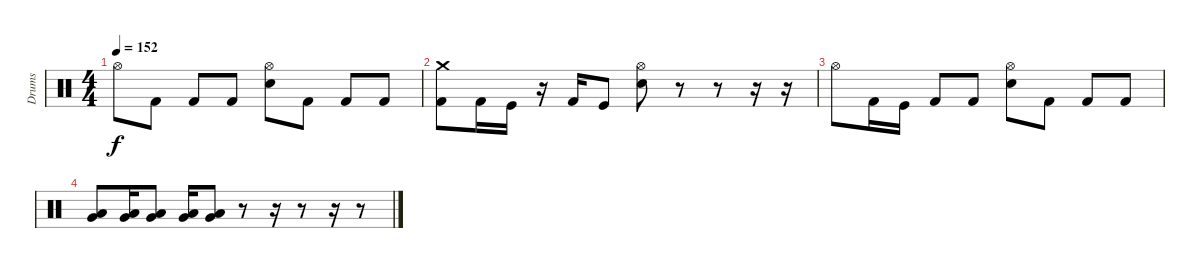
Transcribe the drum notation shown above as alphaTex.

\track ("Drums" "Drums") {instrument percussion}
\staff
\articulation defaults
\ts (4 4)
\tempo 152
\clef neutral
\ks c "Hi-Hat (open)".8{dy f} "Kick (hit) 2".8 "Kick (hit) 2".8 "Kick (hit) 2".8
("Hi-Hat (open)" "Electric Snare (hit)").8 "Kick (hit) 2".8 "Kick (hit) 2".8 "Kick (hit) 2".8 |
("Crash medium (hit)" "Kick (hit) 2").8 "Kick (hit) 2".16 "Kick (hit)".16 r.16 "Kick (hit) 2".16 "Kick (hit)".8 ("Hi-Hat (open)" "Electric Snare (hit)").8 r.8 r.8 r.16 r.16 |
"Hi-Hat (open)".8 "Kick (hit) 2".16 "Kick (hit)".16 "Kick (hit) 2".8 "Kick (hit) 2".8 ("Hi-Hat (open)" "Electric Snare (hit)").8 "Kick (hit) 2".8 "Kick (hit) 2".8 "Kick (hit) 2".8 |
("Low Floor Tom (hit)" "Very Low Tom (hit)").8{bd 60} ("Low Floor Tom (hit)" "Very Low Tom (hit)").16{bd 60} ("Low Floor Tom (hit)" "Very Low Tom (hit)").8{bu 60} ("Low Floor Tom (hit)" "Very Low Tom (hit)").16{bd 60} ("Low Floor Tom (hit)" "Very Low Tom (hit)").8{bu 60} r.8 r.16 r.8 r.16 r.8
